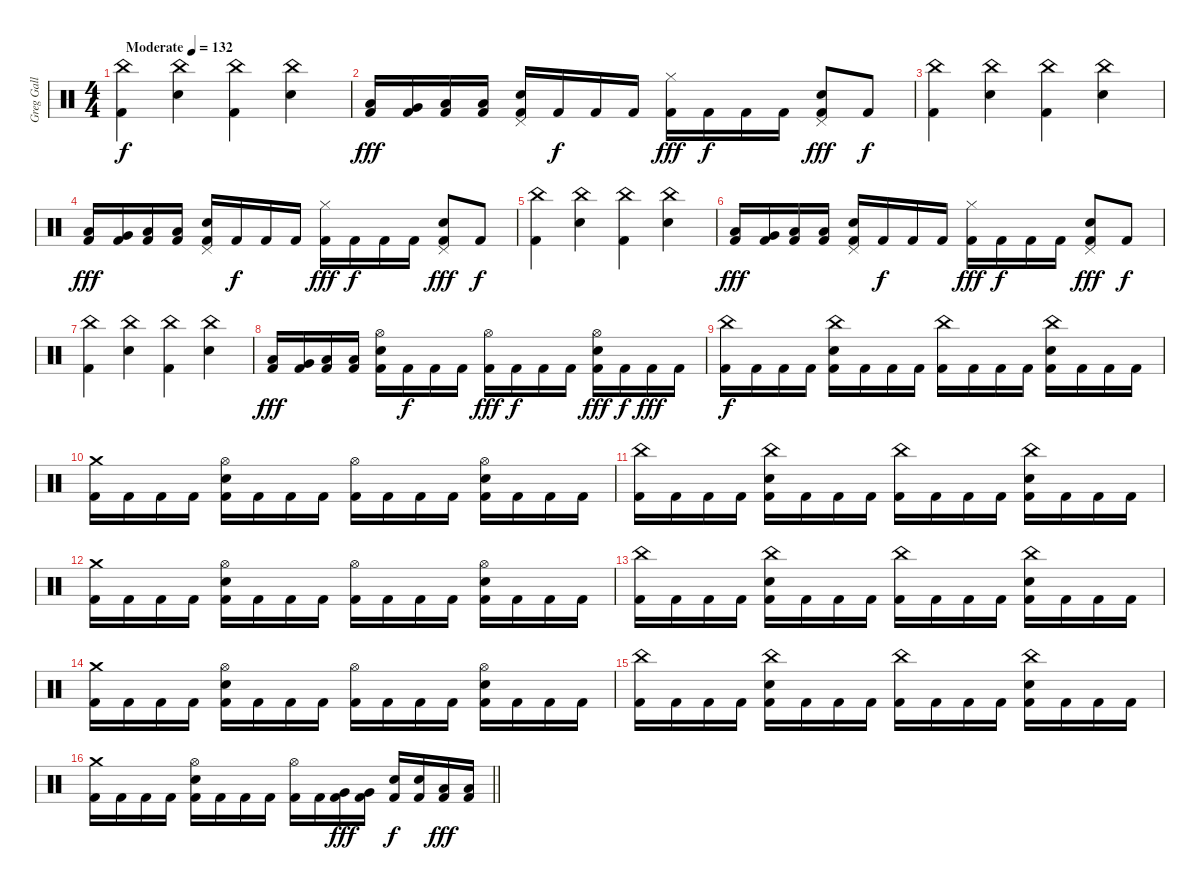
\track ("Greg Gall" "Greg Gall") {instrument percussion}
\staff {score}
\articulation defaults
\ts (4 4)
\tempo (132 "Moderate")
\clef neutral
\ks c
("China (hit)" "Kick (hit) 2").4{dy f} ("China (hit)" "Electric Snare (hit)").4 ("China (hit)" "Kick (hit) 2").4 ("China (hit)" "Electric Snare (hit)").4 |
("Low Tom (hit)" "Kick (hit) 2").16{dy fff} ("Very Low Tom (hit)" "Kick (hit) 2").16 ("Low Floor Tom (hit)" "Kick (hit) 2").16 ("Low Floor Tom (hit)" "Kick (hit) 2").16 ("Pedal Hi-Hat (hit)" "Electric Snare (hit)" "Kick (hit) 2").16 "Kick (hit) 2".16{dy f} "Kick (hit) 2".16 "Kick (hit) 2".16 ("Hi-Hat (closed)" "Kick (hit) 2").16{dy fff} "Kick (hit) 2".16{dy f} "Kick (hit) 2".16 "Kick (hit) 2".16 ("Pedal Hi-Hat (hit)" "Electric Snare (hit)" "Kick (hit) 2").8{dy fff} "Kick (hit) 2".8{dy f} |
("China (hit)" "Kick (hit) 2").4 ("China (hit)" "Electric Snare (hit)").4 ("China (hit)" "Kick (hit) 2").4 ("China (hit)" "Electric Snare (hit)").4 |
("Low Tom (hit)" "Kick (hit) 2").16{dy fff} ("Very Low Tom (hit)" "Kick (hit) 2").16 ("Low Floor Tom (hit)" "Kick (hit) 2").16 ("Low Floor Tom (hit)" "Kick (hit) 2").16 ("Pedal Hi-Hat (hit)" "Electric Snare (hit)" "Kick (hit) 2").16 "Kick (hit) 2".16{dy f} "Kick (hit) 2".16 "Kick (hit) 2".16 ("Hi-Hat (closed)" "Kick (hit) 2").16{dy fff} "Kick (hit) 2".16{dy f} "Kick (hit) 2".16 "Kick (hit) 2".16 ("Pedal Hi-Hat (hit)" "Electric Snare (hit)" "Kick (hit) 2").8{dy fff} "Kick (hit) 2".8{dy f} |
("China (hit)" "Kick (hit) 2").4 ("China (hit)" "Electric Snare (hit)").4 ("China (hit)" "Kick (hit) 2").4 ("China (hit)" "Electric Snare (hit)").4 |
("Low Tom (hit)" "Kick (hit) 2").16{dy fff} ("Very Low Tom (hit)" "Kick (hit) 2").16 ("Low Floor Tom (hit)" "Kick (hit) 2").16 ("Low Floor Tom (hit)" "Kick (hit) 2").16 ("Pedal Hi-Hat (hit)" "Electric Snare (hit)" "Kick (hit) 2").16 "Kick (hit) 2".16{dy f} "Kick (hit) 2".16 "Kick (hit) 2".16 ("Hi-Hat (closed)" "Kick (hit) 2").16{dy fff} "Kick (hit) 2".16{dy f} "Kick (hit) 2".16 "Kick (hit) 2".16 ("Pedal Hi-Hat (hit)" "Electric Snare (hit)" "Kick (hit) 2").8{dy fff} "Kick (hit) 2".8{dy f} |
("China (hit)" "Kick (hit) 2").4 ("China (hit)" "Electric Snare (hit)").4 ("China (hit)" "Kick (hit) 2").4 ("China (hit)" "Electric Snare (hit)").4 |
("Low Tom (hit)" "Kick (hit) 2").16{dy fff} ("Very Low Tom (hit)" "Kick (hit) 2").16 ("Low Floor Tom (hit)" "Kick (hit) 2").16 ("Low Floor Tom (hit)" "Kick (hit) 2").16 ("Hi-Hat (open)" "Electric Snare (hit)" "Kick (hit) 2").16 "Kick (hit) 2".16{dy f} "Kick (hit) 2".16 "Kick (hit) 2".16 ("Hi-Hat (open)" "Kick (hit) 2").16{dy fff} "Kick (hit) 2".16{dy f} "Kick (hit) 2".16 "Kick (hit) 2".16 ("Hi-Hat (open)" "Electric Snare (hit)" "Kick (hit) 2").16{dy fff} "Kick (hit) 2".16{dy f} "Kick (hit) 2".16{dy fff} "Kick (hit) 2".16 |
("China (hit)" "Kick (hit) 2").16{dy f} "Kick (hit) 2".16 "Kick (hit) 2".16 "Kick (hit) 2".16 ("China (hit)" "Electric Snare (hit)" "Kick (hit) 2").16 "Kick (hit) 2".16 "Kick (hit) 2".16 "Kick (hit) 2".16 ("China (hit)" "Kick (hit) 2").16 "Kick (hit) 2".16 "Kick (hit) 2".16 "Kick (hit) 2".16 ("China (hit)" "Electric Snare (hit)" "Kick (hit) 2").16 "Kick (hit) 2".16 "Kick (hit) 2".16 "Kick (hit) 2".16 |
("Crash medium (hit)" "Kick (hit) 2").16 "Kick (hit) 2".16 "Kick (hit) 2".16 "Kick (hit) 2".16 ("Hi-Hat (open)" "Electric Snare (hit)" "Kick (hit) 2").16 "Kick (hit) 2".16 "Kick (hit) 2".16 "Kick (hit) 2".16 ("Hi-Hat (open)" "Kick (hit) 2").16 "Kick (hit) 2".16 "Kick (hit) 2".16 "Kick (hit) 2".16 ("Hi-Hat (open)" "Electric Snare (hit)" "Kick (hit) 2").16 "Kick (hit) 2".16 "Kick (hit) 2".16 "Kick (hit) 2".16 |
("China (hit)" "Kick (hit) 2").16 "Kick (hit) 2".16 "Kick (hit) 2".16 "Kick (hit) 2".16 ("China (hit)" "Electric Snare (hit)" "Kick (hit) 2").16 "Kick (hit) 2".16 "Kick (hit) 2".16 "Kick (hit) 2".16 ("China (hit)" "Kick (hit) 2").16 "Kick (hit) 2".16 "Kick (hit) 2".16 "Kick (hit) 2".16 ("China (hit)" "Electric Snare (hit)" "Kick (hit) 2").16 "Kick (hit) 2".16 "Kick (hit) 2".16 "Kick (hit) 2".16 |
("Crash medium (hit)" "Kick (hit) 2").16 "Kick (hit) 2".16 "Kick (hit) 2".16 "Kick (hit) 2".16 ("Hi-Hat (open)" "Electric Snare (hit)" "Kick (hit) 2").16 "Kick (hit) 2".16 "Kick (hit) 2".16 "Kick (hit) 2".16 ("Hi-Hat (open)" "Kick (hit) 2").16 "Kick (hit) 2".16 "Kick (hit) 2".16 "Kick (hit) 2".16 ("Hi-Hat (open)" "Electric Snare (hit)" "Kick (hit) 2").16 "Kick (hit) 2".16 "Kick (hit) 2".16 "Kick (hit) 2".16 |
("China (hit)" "Kick (hit) 2").16 "Kick (hit) 2".16 "Kick (hit) 2".16 "Kick (hit) 2".16 ("China (hit)" "Electric Snare (hit)" "Kick (hit) 2").16 "Kick (hit) 2".16 "Kick (hit) 2".16 "Kick (hit) 2".16 ("China (hit)" "Kick (hit) 2").16 "Kick (hit) 2".16 "Kick (hit) 2".16 "Kick (hit) 2".16 ("China (hit)" "Electric Snare (hit)" "Kick (hit) 2").16 "Kick (hit) 2".16 "Kick (hit) 2".16 "Kick (hit) 2".16 |
("Crash medium (hit)" "Kick (hit) 2").16 "Kick (hit) 2".16 "Kick (hit) 2".16 "Kick (hit) 2".16 ("Hi-Hat (open)" "Electric Snare (hit)" "Kick (hit) 2").16 "Kick (hit) 2".16 "Kick (hit) 2".16 "Kick (hit) 2".16 ("Hi-Hat (open)" "Kick (hit) 2").16 "Kick (hit) 2".16 "Kick (hit) 2".16 "Kick (hit) 2".16 ("Hi-Hat (open)" "Electric Snare (hit)" "Kick (hit) 2").16 "Kick (hit) 2".16 "Kick (hit) 2".16 "Kick (hit) 2".16 |
("China (hit)" "Kick (hit) 2").16 "Kick (hit) 2".16 "Kick (hit) 2".16 "Kick (hit) 2".16 ("China (hit)" "Electric Snare (hit)" "Kick (hit) 2").16 "Kick (hit) 2".16 "Kick (hit) 2".16 "Kick (hit) 2".16 ("China (hit)" "Kick (hit) 2").16 "Kick (hit) 2".16 "Kick (hit) 2".16 "Kick (hit) 2".16 ("China (hit)" "Electric Snare (hit)" "Kick (hit) 2").16 "Kick (hit) 2".16 "Kick (hit) 2".16 "Kick (hit) 2".16 |
\barLineRight lightlight
("Crash medium (hit)" "Kick (hit) 2").16 "Kick (hit) 2".16 "Kick (hit) 2".16 "Kick (hit) 2".16 ("Hi-Hat (open)" "Electric Snare (hit)" "Kick (hit) 2").16 "Kick (hit) 2".16 "Kick (hit) 2".16 "Kick (hit) 2".16 ("Hi-Hat (open)" "Kick (hit) 2").16 "Kick (hit) 2".16 ("Very Low Tom (hit)" "Kick (hit) 2").16{dy fff} ("Very Low Tom (hit)" "Kick (hit) 2").16 ("Electric Snare (hit)" "Kick (hit) 2").16{dy f} ("Electric Snare (hit)" "Kick (hit) 2").16 ("Low Floor Tom (hit)" "Kick (hit) 2").16{dy fff} ("Low Floor Tom (hit)" "Kick (hit) 2").16
